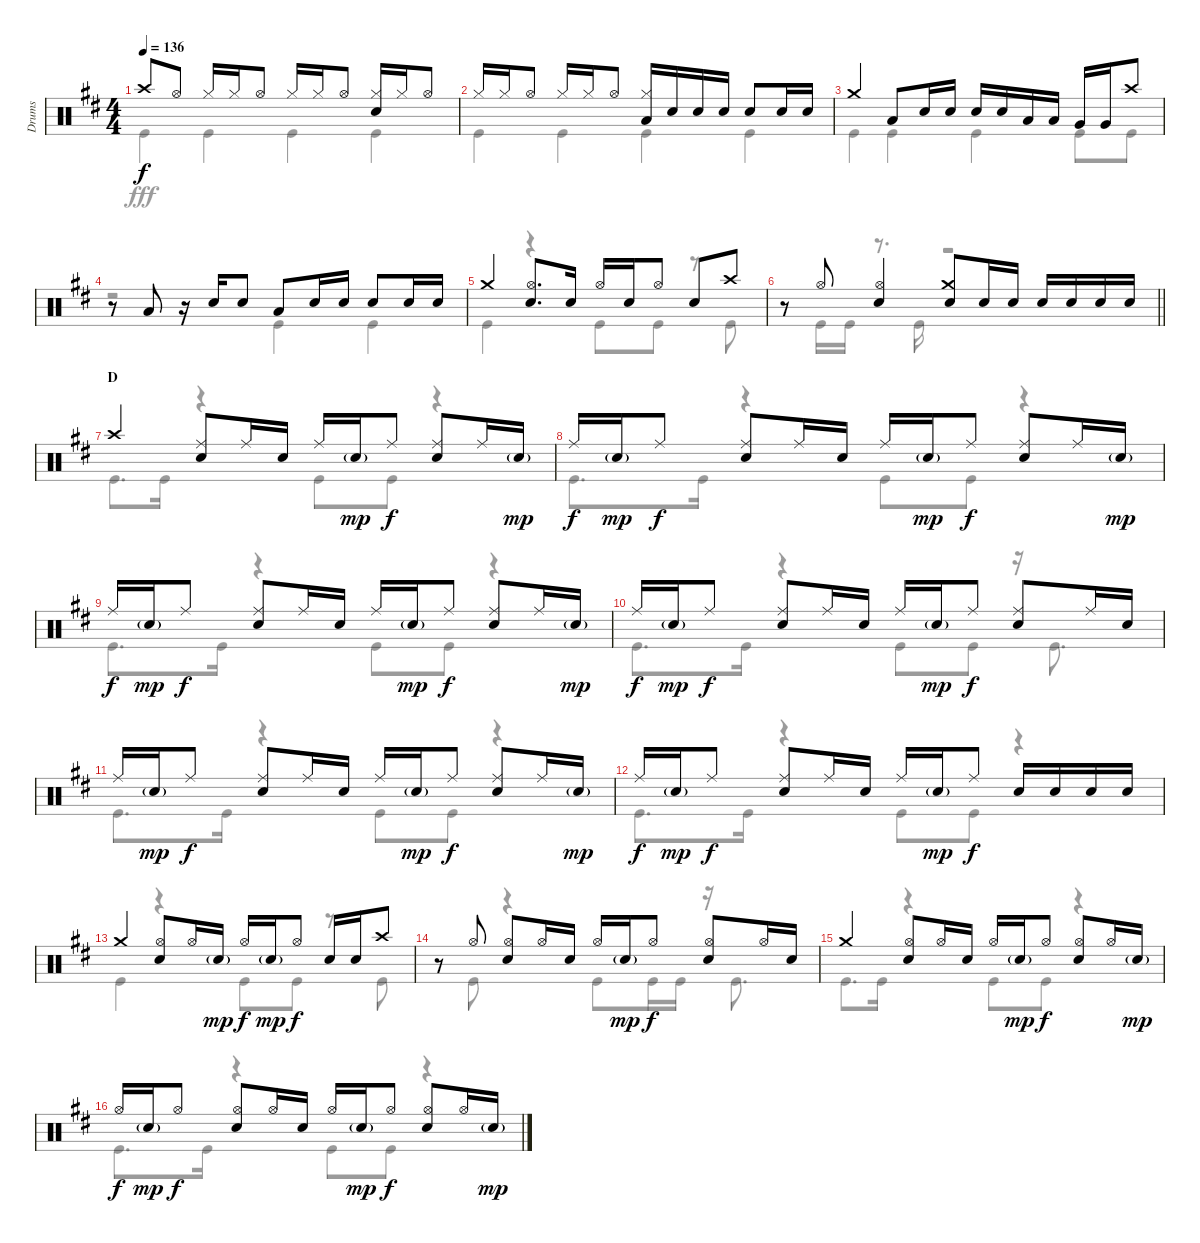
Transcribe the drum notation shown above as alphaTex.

\track ("Drums" "Drums") {instrument percussion}
\staff {score}
\articulation defaults
\voice
\ts (4 4)
\tempo 136
\clef neutral
\ks d "Crash high (hit)".8{dy f} "Hi-Hat (open)".8 "Hi-Hat (closed)".16 "Hi-Hat (closed)".16 "Hi-Hat (open)".8 "Hi-Hat (closed)".16 "Hi-Hat (closed)".16 "Hi-Hat (open)".8
("Hi-Hat (closed)" "Snare (hit) 2").16 "Hi-Hat (closed)".16 "Hi-Hat (open)".8 |
"Hi-Hat (closed)".16 "Hi-Hat (closed)".16 "Hi-Hat (open)".8 "Hi-Hat (closed)".16 "Hi-Hat (closed)".16 "Hi-Hat (open)".8 ("Hi-Hat (closed)" "Low Tom (hit)").16 "Snare (hit) 2".16 "Snare (hit) 2".16 "Snare (hit) 2".16 "Snare (hit) 2".8 "Snare (hit) 2".16 "Snare (hit) 2".16 |
"Crash medium (hit)".4 "Low Tom (hit)".8 "Snare (hit) 2".16 "Snare (hit) 2".16 "Snare (hit) 2".16 "Snare (hit) 2".16 "Low Tom (hit)".16 "Low Tom (hit)".16 "Very Low Tom (hit)".16 "Very Low Tom (hit)".16 "Crash high (hit)".8 |
r.8 "Low Tom (hit)".8 r.16 "Snare (hit) 2".16 "Snare (hit) 2".8 "Low Tom (hit)".8 "Snare (hit) 2".16 "Snare (hit) 2".16 "Snare (hit) 2".8 "Snare (hit) 2".16 "Snare (hit) 2".16 |
"Crash medium (hit)".4 ("Hi-Hat (open)" "Snare (hit) 2").8{d} "Snare (hit) 2".16 "Hi-Hat (open)".16 "Snare (hit) 2".16 "Hi-Hat (open)".8 "Snare (hit) 2".8 "Crash high (hit)".8 |
\barLineRight lightlight
r.8 "Hi-Hat (open)".8 ("Hi-Hat (open)" "Snare (hit) 2").4 ("Crash medium (hit)" "Snare (hit) 2").8 "Snare (hit) 2".16 "Snare (hit) 2".16 "Snare (hit) 2".16 "Snare (hit) 2".16 "Snare (hit) 2".16 "Snare (hit) 2".16 |
\section ("" "D")
"Crash high (hit)".4 ("Ride (middle)" "Snare (hit) 2").8 "Ride (middle)".16 "Snare (hit) 2".16 "Ride (middle)".16 "Snare (hit) 2"{g}.16{dy mp} "Ride (middle)".8{dy f} ("Ride (middle)" "Snare (hit) 2").8 "Ride (middle)".16 "Snare (hit) 2"{g}.16{dy mp} |
"Ride (middle)".16{dy f} "Snare (hit) 2"{g}.16{dy mp} "Ride (middle)".8{dy f} ("Ride (middle)" "Snare (hit) 2").8 "Ride (middle)".16 "Snare (hit) 2".16 "Ride (middle)".16 "Snare (hit) 2"{g}.16{dy mp} "Ride (middle)".8{dy f} ("Ride (middle)" "Snare (hit) 2").8 "Ride (middle)".16 "Snare (hit) 2"{g}.16{dy mp} |
"Ride (middle)".16{dy f} "Snare (hit) 2"{g}.16{dy mp} "Ride (middle)".8{dy f} ("Ride (middle)" "Snare (hit) 2").8 "Ride (middle)".16 "Snare (hit) 2".16 "Ride (middle)".16 "Snare (hit) 2"{g}.16{dy mp} "Ride (middle)".8{dy f} ("Ride (middle)" "Snare (hit) 2").8 "Ride (middle)".16 "Snare (hit) 2"{g}.16{dy mp} |
"Ride (middle)".16{dy f} "Snare (hit) 2"{g}.16{dy mp} "Ride (middle)".8{dy f} ("Ride (middle)" "Snare (hit) 2").8 "Ride (middle)".16 "Snare (hit) 2".16 "Ride (middle)".16 "Snare (hit) 2"{g}.16{dy mp} "Ride (middle)".8{dy f} ("Ride (middle)" "Snare (hit) 2").8 "Ride (middle)".16 "Snare (hit) 2".16 |
"Ride (middle)".16 "Snare (hit) 2"{g}.16{dy mp} "Ride (middle)".8{dy f} ("Ride (middle)" "Snare (hit) 2").8 "Ride (middle)".16 "Snare (hit) 2".16 "Ride (middle)".16 "Snare (hit) 2"{g}.16{dy mp} "Ride (middle)".8{dy f} ("Ride (middle)" "Snare (hit) 2").8 "Ride (middle)".16 "Snare (hit) 2"{g}.16{dy mp} |
"Ride (middle)".16{dy f} "Snare (hit) 2"{g}.16{dy mp} "Ride (middle)".8{dy f} ("Ride (middle)" "Snare (hit) 2").8 "Ride (middle)".16 "Snare (hit) 2".16 "Ride (middle)".16 "Snare (hit) 2"{g}.16{dy mp} "Ride (middle)".8{dy f} "Snare (hit) 2".16 "Snare (hit) 2".16 "Snare (hit) 2".16 "Snare (hit) 2".16 |
"Crash medium (hit)".4 ("Hi-Hat (open)" "Snare (hit) 2").8 "Hi-Hat (open)".16 "Snare (hit) 2"{g}.16{dy mp} "Hi-Hat (open)".16{dy f} "Snare (hit) 2"{g}.16{dy mp} "Hi-Hat (open)".8{dy f} "Snare (hit) 2".16 "Snare (hit) 2".16 "Crash high (hit)".8 |
r.8 "Hi-Hat (open)".8 ("Hi-Hat (open)" "Snare (hit) 2").8 "Hi-Hat (open)".16 "Snare (hit) 2".16 "Hi-Hat (open)".16 "Snare (hit) 2"{g}.16{dy mp} "Hi-Hat (open)".8{dy f} ("Hi-Hat (open)" "Snare (hit) 2").8 "Hi-Hat (open)".16 "Snare (hit) 2".16 |
"Crash medium (hit)".4 ("Hi-Hat (open)" "Snare (hit) 2").8 "Hi-Hat (open)".16 "Snare (hit) 2".16 "Hi-Hat (open)".16 "Snare (hit) 2"{g}.16{dy mp} "Hi-Hat (open)".8{dy f} ("Hi-Hat (open)" "Snare (hit) 2").8 "Hi-Hat (open)".16 "Snare (hit) 2"{g}.16{dy mp} |
"Hi-Hat (open)".16{dy f} "Snare (hit) 2"{g}.16{dy mp} "Hi-Hat (open)".8{dy f} ("Hi-Hat (open)" "Snare (hit) 2").8 "Hi-Hat (open)".16 "Snare (hit) 2".16 "Hi-Hat (open)".16 "Snare (hit) 2"{g}.16{dy mp} "Hi-Hat (open)".8{dy f} ("Hi-Hat (open)" "Snare (hit) 2").8 "Hi-Hat (open)".16 "Snare (hit) 2"{g}.16{dy mp}
\voice
\clef neutral
\ottava regular
\simile none
\ks d "Kick (hit)".4{dy fff} "Kick (hit)".4 "Kick (hit)".4 "Kick (hit)".4
|
"Kick (hit)".4 "Kick (hit)".4 "Kick (hit)".4 "Kick (hit)".4 |
"Kick (hit)".4 "Kick (hit)".4 "Kick (hit)".4 "Kick (hit)".8 "Kick (hit)".8 |
r.2 "Kick (hit)".4 "Kick (hit)".4 |
"Kick (hit)".4 r.4 "Kick (hit)".8 "Kick (hit)".8 r.8 "Kick (hit)".8 |
\barLineRight lightlight
r.8 "Kick (hit)".16 "Kick (hit)".16 r.8{d} "Kick (hit)".16 r.2 |
"Kick (hit)".8{d} "Kick (hit)".16 r.4 "Kick (hit)".8 "Kick (hit)".8 r.4 |
"Kick (hit)".8{d} "Kick (hit)".16 r.4 "Kick (hit)".8 "Kick (hit)".8 r.4 |
"Kick (hit)".8{d} "Kick (hit)".16 r.4 "Kick (hit)".8 "Kick (hit)".8 r.4 |
"Kick (hit)".8{d} "Kick (hit)".16 r.4 "Kick (hit)".8 "Kick (hit)".8 r.16 "Kick (hit)".8{d} |
"Kick (hit)".8{d} "Kick (hit)".16 r.4 "Kick (hit)".8 "Kick (hit)".8 r.4 |
"Kick (hit)".8{d} "Kick (hit)".16 r.4 "Kick (hit)".8 "Kick (hit)".8 r.4 |
"Kick (hit)".4 r.4 "Kick (hit)".8 "Kick (hit)".8 r.8 "Kick (hit)".8 |
r.8 "Kick (hit)".8 r.4 "Kick (hit)".8 "Kick (hit)".16 "Kick (hit)".16 r.16 "Kick (hit)".8{d} |
"Kick (hit)".8{d} "Kick (hit)".16 r.4 "Kick (hit)".8 "Kick (hit)".8 r.4 |
"Kick (hit)".8{d} "Kick (hit)".16 r.4 "Kick (hit)".8 "Kick (hit)".8 r.4
